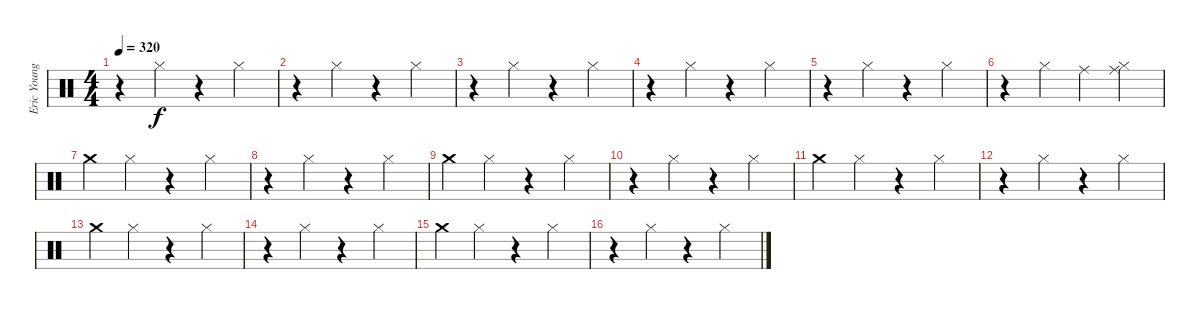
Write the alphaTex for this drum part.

\track ("Eric Young (Drums)" "Eric Young") {instrument percussion}
\staff {score}
\articulation defaults
\ts (4 4)
\tempo 320
\clef neutral
\ks c
r.4{dy f} "Hi-Hat (closed)".4 r.4 "Hi-Hat (closed)".4 |
r.4 "Hi-Hat (closed)".4 r.4 "Hi-Hat (closed)".4 |
r.4 "Hi-Hat (closed)".4 r.4 "Hi-Hat (closed)".4 |
r.4 "Hi-Hat (closed)".4 r.4 "Hi-Hat (closed)".4 |
r.4 "Hi-Hat (closed)".4 r.4 "Hi-Hat (closed)".4 |
r.4 "Hi-Hat (closed)".4 "Ride (middle)".4 ("Hi-Hat (closed)" "Ride (middle)").4 |
"Crash medium (hit)".4 "Hi-Hat (closed)".4 r.4 "Hi-Hat (closed)".4 |
r.4 "Hi-Hat (closed)".4 r.4 "Hi-Hat (closed)".4 |
"Crash medium (hit)".4 "Hi-Hat (closed)".4 r.4 "Hi-Hat (closed)".4 |
r.4 "Hi-Hat (closed)".4 r.4 "Hi-Hat (closed)".4 |
"Crash medium (hit)".4 "Hi-Hat (closed)".4 r.4 "Hi-Hat (closed)".4 |
r.4 "Hi-Hat (closed)".4 r.4 "Hi-Hat (closed)".4 |
"Crash medium (hit)".4 "Hi-Hat (closed)".4 r.4 "Hi-Hat (closed)".4 |
r.4 "Hi-Hat (closed)".4 r.4 "Hi-Hat (closed)".4 |
"Crash medium (hit)".4 "Hi-Hat (closed)".4 r.4 "Hi-Hat (closed)".4 |
r.4 "Hi-Hat (closed)".4 r.4 "Hi-Hat (closed)".4
